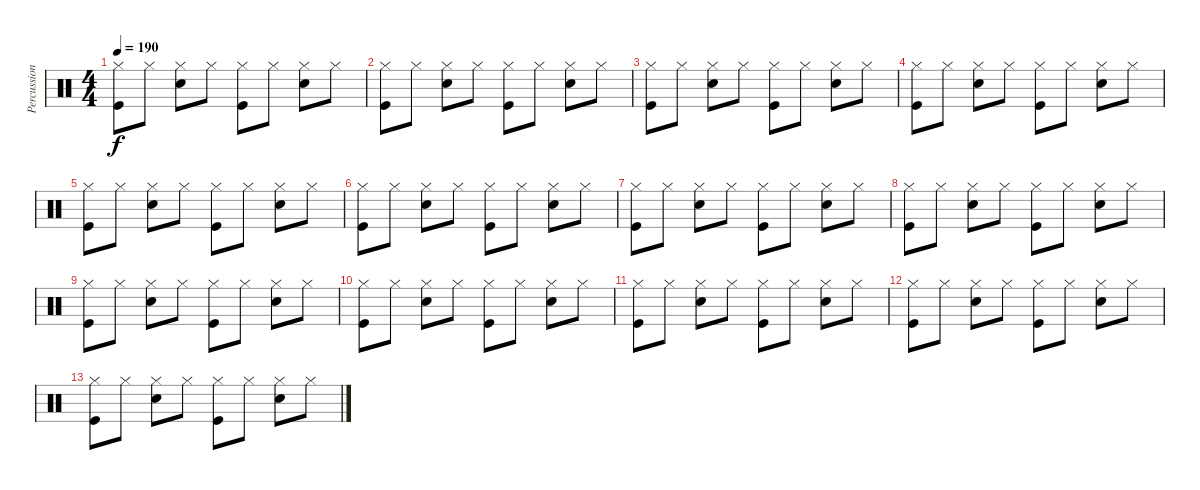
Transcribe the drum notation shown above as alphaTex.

\track ("Percussion" "Percussion") {instrument percussion}
\staff {score}
\articulation defaults
\ts (4 4)
\tempo 190
\clef neutral
\ks c
("Hi-Hat (closed)" "Kick (hit)").8{dy f} "Hi-Hat (closed)".8 ("Hi-Hat (closed)" "Electric Snare (hit)").8 "Hi-Hat (closed)".8 ("Hi-Hat (closed)" "Kick (hit)").8 "Hi-Hat (closed)".8 ("Hi-Hat (closed)" "Electric Snare (hit)").8 "Hi-Hat (closed)".8 |
("Hi-Hat (closed)" "Kick (hit)").8 "Hi-Hat (closed)".8 ("Hi-Hat (closed)" "Electric Snare (hit)").8 "Hi-Hat (closed)".8 ("Hi-Hat (closed)" "Kick (hit)").8 "Hi-Hat (closed)".8 ("Hi-Hat (closed)" "Electric Snare (hit)").8 "Hi-Hat (closed)".8 |
("Hi-Hat (closed)" "Kick (hit)").8 "Hi-Hat (closed)".8 ("Hi-Hat (closed)" "Electric Snare (hit)").8 "Hi-Hat (closed)".8 ("Hi-Hat (closed)" "Kick (hit)").8 "Hi-Hat (closed)".8 ("Hi-Hat (closed)" "Electric Snare (hit)").8 "Hi-Hat (closed)".8 |
("Hi-Hat (closed)" "Kick (hit)").8 "Hi-Hat (closed)".8 ("Hi-Hat (closed)" "Electric Snare (hit)").8 "Hi-Hat (closed)".8 ("Hi-Hat (closed)" "Kick (hit)").8 "Hi-Hat (closed)".8 ("Hi-Hat (closed)" "Electric Snare (hit)").8 "Hi-Hat (closed)".8 |
("Hi-Hat (closed)" "Kick (hit)").8 "Hi-Hat (closed)".8 ("Hi-Hat (closed)" "Electric Snare (hit)").8 "Hi-Hat (closed)".8 ("Hi-Hat (closed)" "Kick (hit)").8 "Hi-Hat (closed)".8 ("Hi-Hat (closed)" "Electric Snare (hit)").8 "Hi-Hat (closed)".8 |
("Hi-Hat (closed)" "Kick (hit)").8 "Hi-Hat (closed)".8 ("Hi-Hat (closed)" "Electric Snare (hit)").8 "Hi-Hat (closed)".8 ("Hi-Hat (closed)" "Kick (hit)").8 "Hi-Hat (closed)".8 ("Hi-Hat (closed)" "Electric Snare (hit)").8 "Hi-Hat (closed)".8 |
("Hi-Hat (closed)" "Kick (hit)").8 "Hi-Hat (closed)".8 ("Hi-Hat (closed)" "Electric Snare (hit)").8 "Hi-Hat (closed)".8 ("Hi-Hat (closed)" "Kick (hit)").8 "Hi-Hat (closed)".8 ("Hi-Hat (closed)" "Electric Snare (hit)").8 "Hi-Hat (closed)".8 |
("Hi-Hat (closed)" "Kick (hit)").8 "Hi-Hat (closed)".8 ("Hi-Hat (closed)" "Electric Snare (hit)").8 "Hi-Hat (closed)".8 ("Hi-Hat (closed)" "Kick (hit)").8 "Hi-Hat (closed)".8 ("Hi-Hat (closed)" "Electric Snare (hit)").8 "Hi-Hat (closed)".8 |
("Hi-Hat (closed)" "Kick (hit)").8 "Hi-Hat (closed)".8 ("Hi-Hat (closed)" "Electric Snare (hit)").8 "Hi-Hat (closed)".8 ("Hi-Hat (closed)" "Kick (hit)").8 "Hi-Hat (closed)".8 ("Hi-Hat (closed)" "Electric Snare (hit)").8 "Hi-Hat (closed)".8 |
("Hi-Hat (closed)" "Kick (hit)").8 "Hi-Hat (closed)".8 ("Hi-Hat (closed)" "Electric Snare (hit)").8 "Hi-Hat (closed)".8 ("Hi-Hat (closed)" "Kick (hit)").8 "Hi-Hat (closed)".8 ("Hi-Hat (closed)" "Electric Snare (hit)").8 "Hi-Hat (closed)".8 |
("Hi-Hat (closed)" "Kick (hit)").8 "Hi-Hat (closed)".8 ("Hi-Hat (closed)" "Electric Snare (hit)").8 "Hi-Hat (closed)".8 ("Hi-Hat (closed)" "Kick (hit)").8 "Hi-Hat (closed)".8 ("Hi-Hat (closed)" "Electric Snare (hit)").8 "Hi-Hat (closed)".8 |
("Hi-Hat (closed)" "Kick (hit)").8 "Hi-Hat (closed)".8 ("Hi-Hat (closed)" "Electric Snare (hit)").8 "Hi-Hat (closed)".8 ("Hi-Hat (closed)" "Kick (hit)").8 "Hi-Hat (closed)".8 ("Hi-Hat (closed)" "Electric Snare (hit)").8 "Hi-Hat (closed)".8 |
("Hi-Hat (closed)" "Kick (hit)").8 "Hi-Hat (closed)".8 ("Hi-Hat (closed)" "Electric Snare (hit)").8 "Hi-Hat (closed)".8 ("Hi-Hat (closed)" "Kick (hit)").8 "Hi-Hat (closed)".8 ("Hi-Hat (closed)" "Electric Snare (hit)").8 "Hi-Hat (closed)".8
